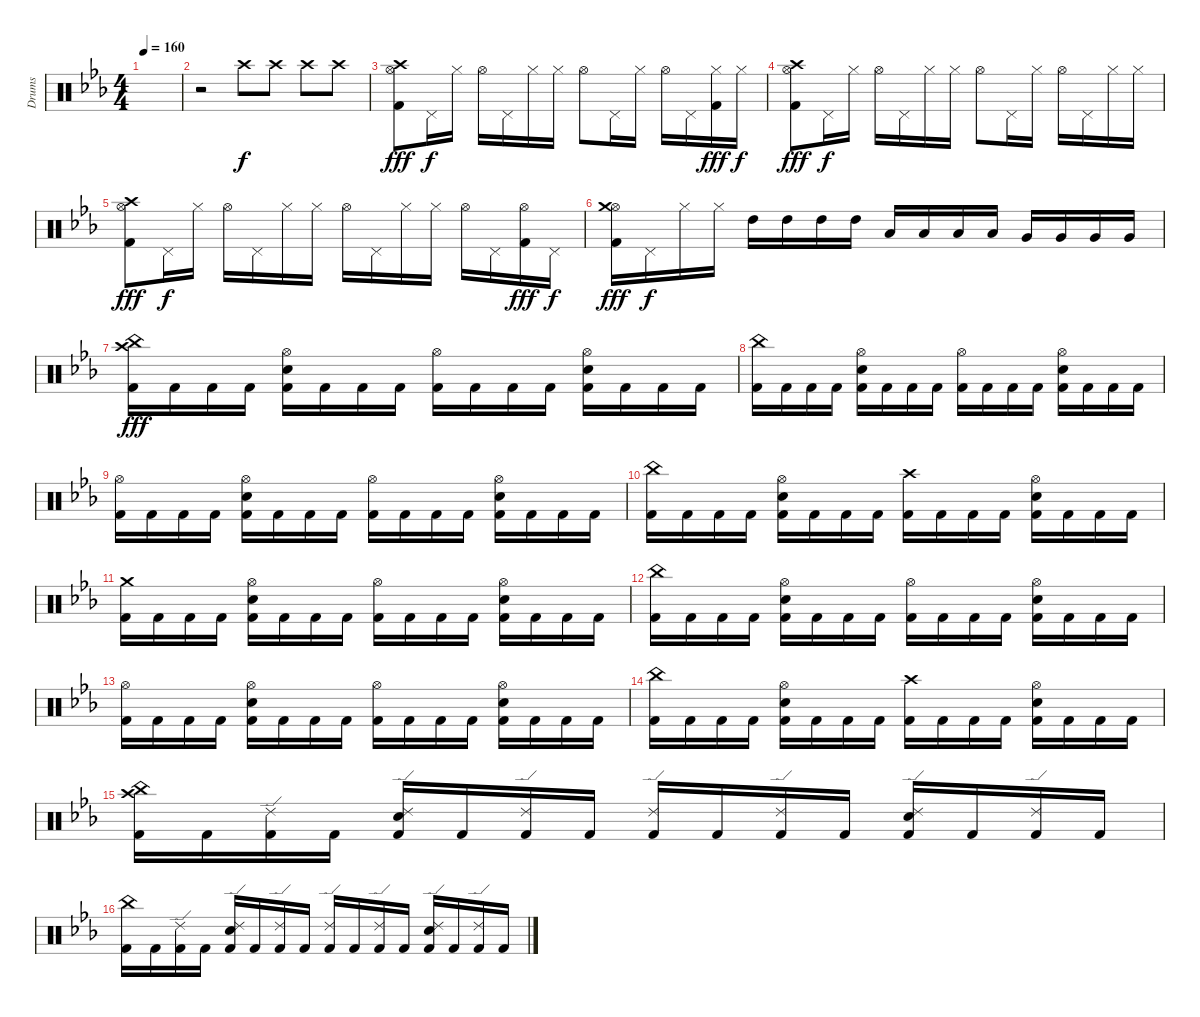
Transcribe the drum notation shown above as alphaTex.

\track ("Drums" "Drums") {instrument percussion}
\staff {score}
\articulation defaults
\ts (4 4)
\tempo 160
\clef neutral
\ks eb
|
r.2{volume 13} "Crash high (hit)".8 "Crash high (hit)".8 "Crash high (hit)".8 "Crash high (hit)".8 |
("Hi-Hat (open)" "Crash high (hit)" "Kick (hit) 2").8{dy fff} "Pedal Hi-Hat (hit)".16{dy f} "Hi-Hat (closed)".16 "Hi-Hat (open)".16 "Pedal Hi-Hat (hit)".16 "Hi-Hat (closed)".16 "Hi-Hat (closed)".16 "Hi-Hat (open)".8 "Pedal Hi-Hat (hit)".16 "Hi-Hat (closed)".16 "Hi-Hat (open)".16 "Pedal Hi-Hat (hit)".16 ("Hi-Hat (closed)" "Kick (hit) 2").16{dy fff} "Hi-Hat (closed)".16{dy f} |
("Hi-Hat (open)" "Crash high (hit)" "Kick (hit) 2").8{dy fff} "Pedal Hi-Hat (hit)".16{dy f} "Hi-Hat (closed)".16 "Hi-Hat (open)".16 "Pedal Hi-Hat (hit)".16 "Hi-Hat (closed)".16 "Hi-Hat (closed)".16 "Hi-Hat (open)".8 "Pedal Hi-Hat (hit)".16 "Hi-Hat (closed)".16 "Hi-Hat (open)".16 "Pedal Hi-Hat (hit)".16 "Hi-Hat (closed)".16 "Hi-Hat (closed)".16 |
("Hi-Hat (open)" "Crash high (hit)" "Kick (hit) 2").8{dy fff} "Pedal Hi-Hat (hit)".16{dy f} "Hi-Hat (closed)".16 "Hi-Hat (open)".16 "Pedal Hi-Hat (hit)".16 "Hi-Hat (closed)".16 "Hi-Hat (closed)".16 "Hi-Hat (open)".16 "Pedal Hi-Hat (hit)".16 "Hi-Hat (closed)".16 "Hi-Hat (closed)".16 "Hi-Hat (open)".16 "Pedal Hi-Hat (hit)".16 ("Hi-Hat (open)" "Kick (hit) 2").16{dy fff} "Pedal Hi-Hat (hit)".16{dy f} |
("Hi-Hat (open)" "Crash medium (hit)" "Kick (hit) 2").16{dy fff} "Pedal Hi-Hat (hit)".16{dy f} "Hi-Hat (closed)".16 "Hi-Hat (closed)".16 "High Tom (hit)".16 "High Tom (hit)".16 "High Tom (hit)".16 "High Tom (hit)".16 "Low Tom (hit)".16 "Low Tom (hit)".16 "Low Tom (hit)".16 "Low Tom (hit)".16 "Very Low Tom (hit)".16 "Very Low Tom (hit)".16 "Very Low Tom (hit)".16 "Very Low Tom (hit)".16 |
("Crash high (hit)" "China (hit)" "Kick (hit) 2").16{dy fff} "Kick (hit) 2".16 "Kick (hit) 2".16 "Kick (hit) 2".16 ("Hi-Hat (open)" "Electric Snare (hit)" "Kick (hit) 2").16 "Kick (hit) 2".16 "Kick (hit) 2".16 "Kick (hit) 2".16 ("Hi-Hat (open)" "Kick (hit) 2").16 "Kick (hit) 2".16 "Kick (hit) 2".16 "Kick (hit) 2".16 ("Hi-Hat (open)" "Electric Snare (hit)" "Kick (hit) 2").16 "Kick (hit) 2".16 "Kick (hit) 2".16 "Kick (hit) 2".16 |
("China (hit)" "Kick (hit) 2").16 "Kick (hit) 2".16 "Kick (hit) 2".16 "Kick (hit) 2".16 ("Hi-Hat (open)" "Electric Snare (hit)" "Kick (hit) 2").16 "Kick (hit) 2".16 "Kick (hit) 2".16 "Kick (hit) 2".16 ("Hi-Hat (open)" "Kick (hit) 2").16 "Kick (hit) 2".16 "Kick (hit) 2".16 "Kick (hit) 2".16 ("Hi-Hat (open)" "Electric Snare (hit)" "Kick (hit) 2").16 "Kick (hit) 2".16 "Kick (hit) 2".16 "Kick (hit) 2".16 |
("Hi-Hat (open)" "Kick (hit) 2").16 "Kick (hit) 2".16 "Kick (hit) 2".16 "Kick (hit) 2".16 ("Hi-Hat (open)" "Electric Snare (hit)" "Kick (hit) 2").16 "Kick (hit) 2".16 "Kick (hit) 2".16 "Kick (hit) 2".16 ("Hi-Hat (open)" "Kick (hit) 2").16 "Kick (hit) 2".16 "Kick (hit) 2".16 "Kick (hit) 2".16 ("Hi-Hat (open)" "Electric Snare (hit)" "Kick (hit) 2").16 "Kick (hit) 2".16 "Kick (hit) 2".16 "Kick (hit) 2".16 |
("China (hit)" "Kick (hit) 2").16 "Kick (hit) 2".16 "Kick (hit) 2".16 "Kick (hit) 2".16 ("Hi-Hat (open)" "Electric Snare (hit)" "Kick (hit) 2").16 "Kick (hit) 2".16 "Kick (hit) 2".16 "Kick (hit) 2".16 ("Crash high (hit)" "Kick (hit) 2").16 "Kick (hit) 2".16 "Kick (hit) 2".16 "Kick (hit) 2".16 ("Hi-Hat (open)" "Electric Snare (hit)" "Kick (hit) 2").16 "Kick (hit) 2".16 "Kick (hit) 2".16 "Kick (hit) 2".16 |
("Crash medium (hit)" "Kick (hit) 2").16 "Kick (hit) 2".16 "Kick (hit) 2".16 "Kick (hit) 2".16 ("Hi-Hat (open)" "Electric Snare (hit)" "Kick (hit) 2").16 "Kick (hit) 2".16 "Kick (hit) 2".16 "Kick (hit) 2".16 ("Hi-Hat (open)" "Kick (hit) 2").16 "Kick (hit) 2".16 "Kick (hit) 2".16 "Kick (hit) 2".16 ("Hi-Hat (open)" "Electric Snare (hit)" "Kick (hit) 2").16 "Kick (hit) 2".16 "Kick (hit) 2".16 "Kick (hit) 2".16 |
("China (hit)" "Kick (hit) 2").16 "Kick (hit) 2".16 "Kick (hit) 2".16 "Kick (hit) 2".16 ("Hi-Hat (open)" "Electric Snare (hit)" "Kick (hit) 2").16 "Kick (hit) 2".16 "Kick (hit) 2".16 "Kick (hit) 2".16 ("Hi-Hat (open)" "Kick (hit) 2").16 "Kick (hit) 2".16 "Kick (hit) 2".16 "Kick (hit) 2".16 ("Hi-Hat (open)" "Electric Snare (hit)" "Kick (hit) 2").16 "Kick (hit) 2".16 "Kick (hit) 2".16 "Kick (hit) 2".16 |
("Hi-Hat (open)" "Kick (hit) 2").16 "Kick (hit) 2".16 "Kick (hit) 2".16 "Kick (hit) 2".16 ("Hi-Hat (open)" "Electric Snare (hit)" "Kick (hit) 2").16 "Kick (hit) 2".16 "Kick (hit) 2".16 "Kick (hit) 2".16 ("Hi-Hat (open)" "Kick (hit) 2").16 "Kick (hit) 2".16 "Kick (hit) 2".16 "Kick (hit) 2".16 ("Hi-Hat (open)" "Electric Snare (hit)" "Kick (hit) 2").16 "Kick (hit) 2".16 "Kick (hit) 2".16 "Kick (hit) 2".16 |
("China (hit)" "Kick (hit) 2").16 "Kick (hit) 2".16 "Kick (hit) 2".16 "Kick (hit) 2".16 ("Hi-Hat (open)" "Electric Snare (hit)" "Kick (hit) 2").16 "Kick (hit) 2".16 "Kick (hit) 2".16 "Kick (hit) 2".16 ("Crash high (hit)" "Kick (hit) 2").16 "Kick (hit) 2".16 "Kick (hit) 2".16 "Kick (hit) 2".16 ("Hi-Hat (open)" "Electric Snare (hit)" "Kick (hit) 2").16 "Kick (hit) 2".16 "Kick (hit) 2".16 "Kick (hit) 2".16 |
("Crash high (hit)" "China (hit)" "Kick (hit) 2").16 "Kick (hit) 2".16 ("Ride (edge) 2" "Kick (hit) 2").16 "Kick (hit) 2".16 ("Ride (edge) 2" "Electric Snare (hit)" "Kick (hit) 2").16 "Kick (hit) 2".16 ("Ride (edge) 2" "Kick (hit) 2").16 "Kick (hit) 2".16 ("Ride (edge) 2" "Kick (hit) 2").16 "Kick (hit) 2".16 ("Ride (edge) 2" "Kick (hit) 2").16 "Kick (hit) 2".16 ("Ride (edge) 2" "Electric Snare (hit)" "Kick (hit) 2").16 "Kick (hit) 2".16 ("Ride (edge) 2" "Kick (hit) 2").16 "Kick (hit) 2".16 |
("China (hit)" "Kick (hit) 2").16 "Kick (hit) 2".16 ("Ride (edge) 2" "Kick (hit) 2").16 "Kick (hit) 2".16 ("Ride (edge) 2" "Electric Snare (hit)" "Kick (hit) 2").16 "Kick (hit) 2".16 ("Ride (edge) 2" "Kick (hit) 2").16 "Kick (hit) 2".16 ("Ride (edge) 2" "Kick (hit) 2").16 "Kick (hit) 2".16 ("Ride (edge) 2" "Kick (hit) 2").16 "Kick (hit) 2".16 ("Ride (edge) 2" "Electric Snare (hit)" "Kick (hit) 2").16 "Kick (hit) 2".16 ("Ride (edge) 2" "Kick (hit) 2").16 "Kick (hit) 2".16
